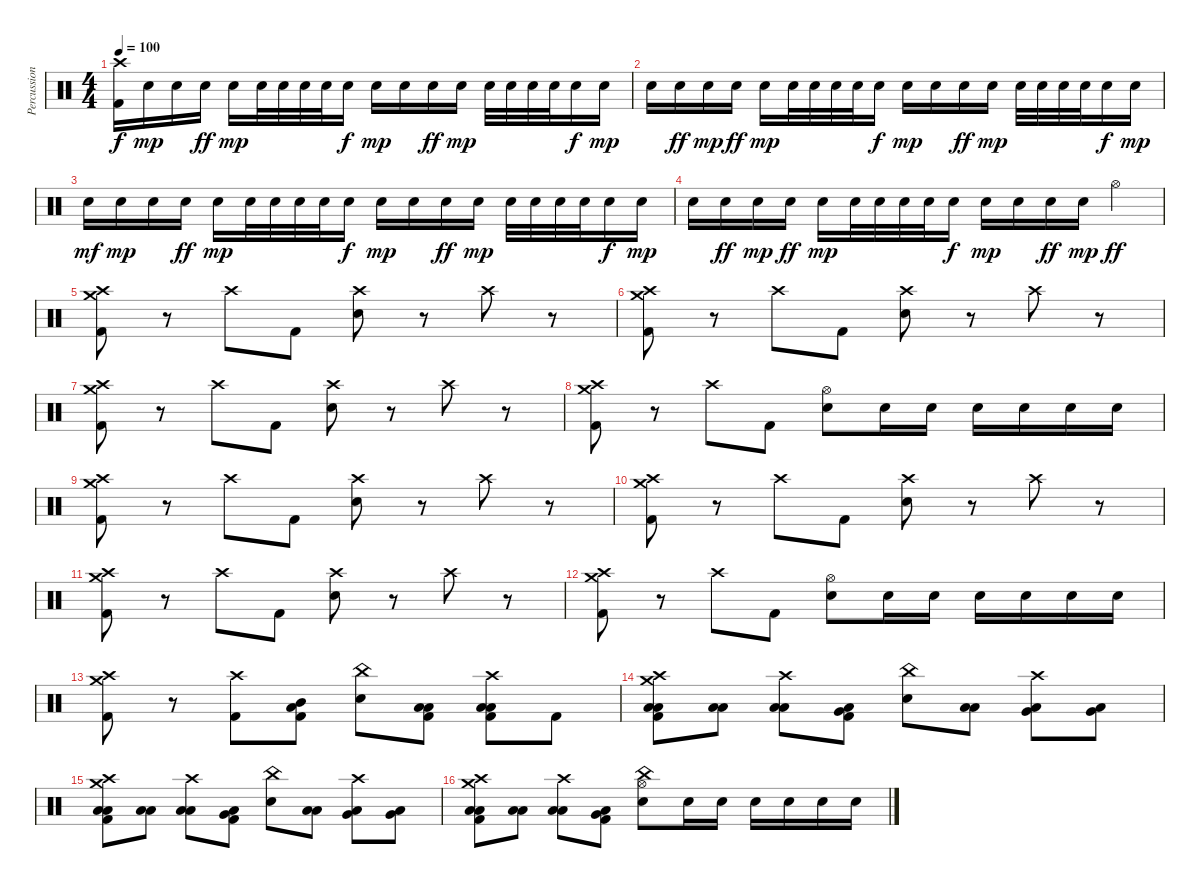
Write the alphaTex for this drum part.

\track ("Percussion" "Percussion") {instrument percussion}
\staff {score}
\articulation defaults
\ts (4 4)
\tempo 100
\clef neutral
\ks c
("Crash high (hit)" "Kick (hit) 2").16{dy f} "Electric Snare (hit)".16{dy mp} "Electric Snare (hit)".16 "Electric Snare (hit)".16{dy ff} "Electric Snare (hit)".16{dy mp} "Electric Snare (hit)".32 "Electric Snare (hit)".32 "Electric Snare (hit)".32 "Electric Snare (hit)".32 "Electric Snare (hit)".16{dy f} "Electric Snare (hit)".16{dy mp} "Electric Snare (hit)".16 "Electric Snare (hit)".16{dy ff} "Electric Snare (hit)".16{dy mp} "Electric Snare (hit)".32 "Electric Snare (hit)".32 "Electric Snare (hit)".32 "Electric Snare (hit)".32 "Electric Snare (hit)".16{dy f} "Electric Snare (hit)".16{dy mp} |
"Electric Snare (hit)".16 "Electric Snare (hit)".16{dy ff} "Electric Snare (hit)".16{dy mp} "Electric Snare (hit)".16{dy ff} "Electric Snare (hit)".16{dy mp} "Electric Snare (hit)".32 "Electric Snare (hit)".32 "Electric Snare (hit)".32 "Electric Snare (hit)".32 "Electric Snare (hit)".16{dy f} "Electric Snare (hit)".16{dy mp} "Electric Snare (hit)".16 "Electric Snare (hit)".16{dy ff} "Electric Snare (hit)".16{dy mp} "Electric Snare (hit)".32 "Electric Snare (hit)".32 "Electric Snare (hit)".32 "Electric Snare (hit)".32 "Electric Snare (hit)".16{dy f} "Electric Snare (hit)".16{dy mp} |
"Electric Snare (hit)".16{dy mf} "Electric Snare (hit)".16{dy mp} "Electric Snare (hit)".16 "Electric Snare (hit)".16{dy ff} "Electric Snare (hit)".16{dy mp} "Electric Snare (hit)".32 "Electric Snare (hit)".32 "Electric Snare (hit)".32 "Electric Snare (hit)".32 "Electric Snare (hit)".16{dy f} "Electric Snare (hit)".16{dy mp} "Electric Snare (hit)".16 "Electric Snare (hit)".16{dy ff} "Electric Snare (hit)".16{dy mp} "Electric Snare (hit)".32 "Electric Snare (hit)".32 "Electric Snare (hit)".32 "Electric Snare (hit)".32 "Electric Snare (hit)".16{dy f} "Electric Snare (hit)".16{dy mp} |
"Electric Snare (hit)".16 "Electric Snare (hit)".16{dy ff} "Electric Snare (hit)".16{dy mp} "Electric Snare (hit)".16{dy ff} "Electric Snare (hit)".16{dy mp} "Electric Snare (hit)".32 "Electric Snare (hit)".32 "Electric Snare (hit)".32 "Electric Snare (hit)".32 "Electric Snare (hit)".16{dy f} "Electric Snare (hit)".16{dy mp} "Electric Snare (hit)".16 "Electric Snare (hit)".16{dy ff} "Electric Snare (hit)".16{dy mp} "Hi-Hat (open)".4{dy ff} |
("Crash high (hit)" "Crash medium (hit)" "Kick (hit) 2").8 r.8 "Crash high (hit)".8 "Kick (hit) 2".8 ("Crash high (hit)" "Electric Snare (hit)").8 r.8 "Crash high (hit)".8 r.8 |
("Crash high (hit)" "Crash medium (hit)" "Kick (hit) 2").8 r.8 "Crash high (hit)".8 "Kick (hit) 2".8 ("Crash high (hit)" "Electric Snare (hit)").8 r.8 "Crash high (hit)".8 r.8 |
("Crash high (hit)" "Crash medium (hit)" "Kick (hit) 2").8 r.8 "Crash high (hit)".8 "Kick (hit) 2".8 ("Crash high (hit)" "Electric Snare (hit)").8 r.8 "Crash high (hit)".8 r.8 |
("Crash high (hit)" "Crash medium (hit)" "Kick (hit) 2").8 r.8 "Crash high (hit)".8 "Kick (hit) 2".8 ("Hi-Hat (open)" "Electric Snare (hit)").8 "Electric Snare (hit)".16 "Electric Snare (hit)".16 "Electric Snare (hit)".16 "Electric Snare (hit)".16 "Electric Snare (hit)".16 "Electric Snare (hit)".16 |
("Crash high (hit)" "Crash medium (hit)" "Kick (hit) 2").8 r.8 "Crash high (hit)".8 "Kick (hit) 2".8 ("Crash high (hit)" "Electric Snare (hit)").8 r.8 "Crash high (hit)".8 r.8 |
("Crash high (hit)" "Crash medium (hit)" "Kick (hit) 2").8 r.8 "Crash high (hit)".8 "Kick (hit) 2".8 ("Crash high (hit)" "Electric Snare (hit)").8 r.8 "Crash high (hit)".8 r.8 |
("Crash high (hit)" "Crash medium (hit)" "Kick (hit) 2").8 r.8 "Crash high (hit)".8 "Kick (hit) 2".8 ("Crash high (hit)" "Electric Snare (hit)").8 r.8 "Crash high (hit)".8 r.8 |
("Crash high (hit)" "Crash medium (hit)" "Kick (hit) 2").8 r.8 "Crash high (hit)".8 "Kick (hit) 2".8 ("Hi-Hat (open)" "Electric Snare (hit)").8 "Electric Snare (hit)".16 "Electric Snare (hit)".16 "Electric Snare (hit)".16 "Electric Snare (hit)".16 "Electric Snare (hit)".16 "Electric Snare (hit)".16 |
("Crash high (hit)" "Crash medium (hit)" "Kick (hit) 2").8 r.8 ("Crash high (hit)" "Kick (hit) 2").8 ("Low Tom (hit)" "Mid Tom (hit)" "Kick (hit) 2").8 ("China (hit)" "Electric Snare (hit)").8 ("Low Tom (hit)" "Low Tom (hit)" "Kick (hit) 2").8 ("Crash high (hit)" "Low Tom (hit)" "Low Tom (hit)" "Kick (hit) 2").8 "Kick (hit) 2".8 |
("Crash high (hit)" "Crash medium (hit)" "Low Tom (hit)" "Low Tom (hit)" "Kick (hit) 2").8 ("Low Tom (hit)" "Low Tom (hit)").8 ("Crash high (hit)" "Low Tom (hit)" "Low Tom (hit)").8 ("Very Low Tom (hit)" "Low Tom (hit)" "Kick (hit) 2").8 ("China (hit)" "Electric Snare (hit)").8 ("Low Tom (hit)" "Low Tom (hit)").8 ("Crash high (hit)" "Very Low Tom (hit)" "Low Tom (hit)").8 ("Very Low Tom (hit)" "Low Tom (hit)").8 |
("Crash high (hit)" "Crash medium (hit)" "Low Tom (hit)" "Low Tom (hit)" "Kick (hit) 2").8 ("Low Tom (hit)" "Low Tom (hit)").8 ("Crash high (hit)" "Low Tom (hit)" "Low Tom (hit)").8 ("Very Low Tom (hit)" "Low Tom (hit)" "Kick (hit) 2").8 ("China (hit)" "Electric Snare (hit)").8 ("Low Tom (hit)" "Low Tom (hit)").8 ("Crash high (hit)" "Very Low Tom (hit)" "Low Tom (hit)").8 ("Very Low Tom (hit)" "Low Tom (hit)").8 |
("Crash high (hit)" "Crash medium (hit)" "Low Tom (hit)" "Low Tom (hit)" "Kick (hit) 2").8 ("Low Tom (hit)" "Low Tom (hit)").8 ("Crash high (hit)" "Low Tom (hit)" "Low Tom (hit)").8 ("Very Low Tom (hit)" "Low Tom (hit)" "Kick (hit) 2").8 ("Hi-Hat (open)" "China (hit)" "Electric Snare (hit)").8 "Electric Snare (hit)".16 "Electric Snare (hit)".16 "Electric Snare (hit)".16 "Electric Snare (hit)".16 "Electric Snare (hit)".16 "Electric Snare (hit)".16
